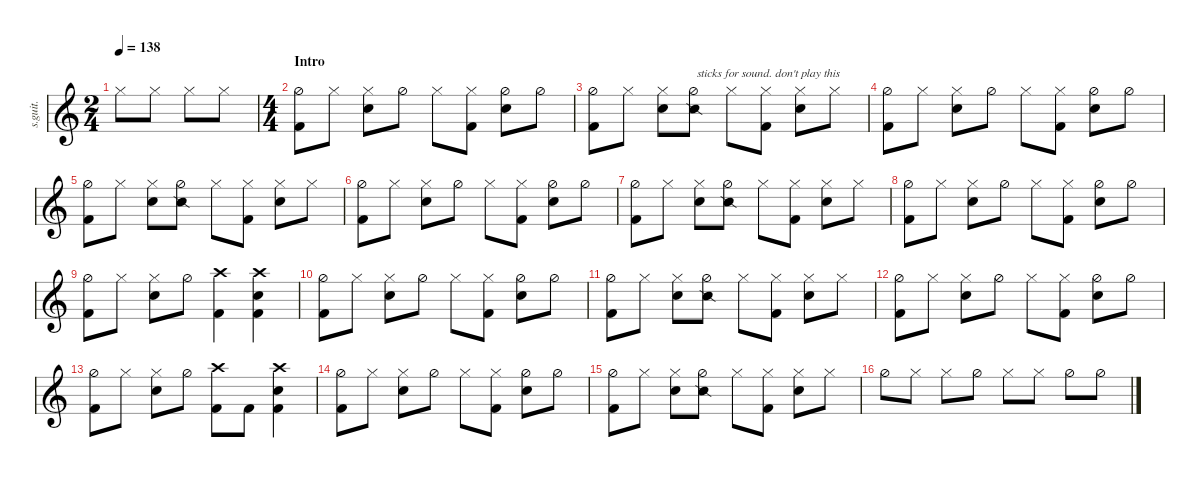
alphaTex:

\defaultSystemsLayout 4
\hideDynamics
\bracketExtendMode nobrackets
\track ("Russel Hobbs | Drums" "s.guit.") {instrument percussion}
\staff {score}
\articulation defaults
\ts (2 4)
\beaming (8 2 2 2 2)
\tempo 138
\clef g2
\ks c "Hi-Hat (closed)".8{dy f} "Hi-Hat (closed)".8 "Hi-Hat (closed)".8 "Hi-Hat (closed)".8
|
\ts (4 4)
\beaming (8 2 2 2 2)
\section ("" "Intro")
("Hi-Hat (half)" "Kick (hit) 2").8 "Hi-Hat (closed)".8 ("Hi-Hat (closed)" "Snare (hit) 2").8{dy ff} "Hi-Hat (half)".8 "Hi-Hat (closed)".8 ("Hi-Hat (closed)" "Kick (hit) 2").8 ("Hi-Hat (half)" "Snare (hit) 2").8 "Hi-Hat (half)".8{dy f} |
("Hi-Hat (half)" "Kick (hit) 2").8 "Hi-Hat (closed)".8 ("Hi-Hat (closed)" "Snare (hit) 2").8 ("Hi-Hat (half)" "Snare (side stick) 2").8{txt "sticks for sound. don't play this"} "Hi-Hat (closed)".8 ("Hi-Hat (closed)" "Kick (hit) 2").8 ("Hi-Hat (closed)" "Snare (hit) 2").8 "Hi-Hat (closed)".8 |
("Hi-Hat (half)" "Kick (hit) 2").8 "Hi-Hat (closed)".8 ("Hi-Hat (closed)" "Snare (hit) 2").8{dy ff} "Hi-Hat (half)".8 "Hi-Hat (closed)".8 ("Hi-Hat (closed)" "Kick (hit) 2").8 ("Hi-Hat (half)" "Snare (hit) 2").8 "Hi-Hat (half)".8{dy f} |
("Hi-Hat (half)" "Kick (hit) 2").8 "Hi-Hat (closed)".8 ("Hi-Hat (closed)" "Snare (hit) 2").8 ("Hi-Hat (half)" "Snare (side stick) 2").8 "Hi-Hat (closed)".8 ("Hi-Hat (closed)" "Kick (hit) 2").8 ("Hi-Hat (closed)" "Snare (hit) 2").8 "Hi-Hat (closed)".8 |
("Hi-Hat (half)" "Kick (hit) 2").8 "Hi-Hat (closed)".8 ("Hi-Hat (closed)" "Snare (hit) 2").8{dy ff} "Hi-Hat (half)".8 "Hi-Hat (closed)".8 ("Hi-Hat (closed)" "Kick (hit) 2").8 ("Hi-Hat (half)" "Snare (hit) 2").8 "Hi-Hat (half)".8{dy f} |
("Hi-Hat (half)" "Kick (hit) 2").8 "Hi-Hat (closed)".8 ("Hi-Hat (closed)" "Snare (hit) 2").8 ("Hi-Hat (half)" "Snare (side stick) 2").8 "Hi-Hat (closed)".8 ("Hi-Hat (closed)" "Kick (hit) 2").8 ("Hi-Hat (closed)" "Snare (hit) 2").8{dy ff} "Hi-Hat (closed)".8{dy f} |
("Hi-Hat (half)" "Kick (hit) 2").8 "Hi-Hat (closed)".8 ("Hi-Hat (closed)" "Snare (hit) 2").8{dy ff} "Hi-Hat (half)".8 "Hi-Hat (closed)".8 ("Hi-Hat (closed)" "Kick (hit) 2").8 ("Hi-Hat (half)" "Snare (hit) 2").8 "Hi-Hat (half)".8{dy f} |
("Hi-Hat (half)" "Kick (hit) 2").8 "Hi-Hat (closed)".8 ("Hi-Hat (closed)" "Snare (hit) 2").8 "Hi-Hat (half)".8 ("Crash high (hit)" "Kick (hit) 2").4 ("Crash high (hit)" "Snare (hit) 2" "Kick (hit) 2").4 |
("Hi-Hat (half)" "Kick (hit) 2").8 "Hi-Hat (closed)".8 ("Hi-Hat (closed)" "Snare (hit) 2").8{dy ff} "Hi-Hat (half)".8 "Hi-Hat (closed)".8 ("Hi-Hat (closed)" "Kick (hit) 2").8 ("Hi-Hat (half)" "Snare (hit) 2").8 "Hi-Hat (half)".8{dy f} |
("Hi-Hat (half)" "Kick (hit) 2").8 "Hi-Hat (closed)".8 ("Hi-Hat (closed)" "Snare (hit) 2").8 ("Hi-Hat (half)" "Snare (side stick) 2").8 "Hi-Hat (closed)".8 ("Hi-Hat (closed)" "Kick (hit) 2").8 ("Hi-Hat (closed)" "Snare (hit) 2").8 "Hi-Hat (closed)".8 |
("Hi-Hat (half)" "Kick (hit) 2").8 "Hi-Hat (closed)".8 ("Hi-Hat (closed)" "Snare (hit) 2").8{dy ff} "Hi-Hat (half)".8 "Hi-Hat (closed)".8 ("Hi-Hat (closed)" "Kick (hit) 2").8 ("Hi-Hat (half)" "Snare (hit) 2").8 "Hi-Hat (half)".8{dy f} |
("Hi-Hat (half)" "Kick (hit) 2").8 "Hi-Hat (closed)".8 ("Hi-Hat (closed)" "Snare (hit) 2").8 "Hi-Hat (half)".8 ("Crash high (hit)" "Kick (hit) 2").8 "Kick (hit) 2".8{dy fff} ("Crash high (hit)" "Snare (hit) 2" "Kick (hit) 2").4 |
("Hi-Hat (half)" "Kick (hit) 2").8 "Hi-Hat (closed)".8{dy f} ("Hi-Hat (closed)" "Snare (hit) 2").8{dy ff} "Hi-Hat (half)".8 "Hi-Hat (closed)".8 ("Hi-Hat (closed)" "Kick (hit) 2").8 ("Hi-Hat (half)" "Snare (hit) 2").8 "Hi-Hat (half)".8{dy f} |
("Hi-Hat (half)" "Kick (hit) 2").8 "Hi-Hat (closed)".8 ("Hi-Hat (closed)" "Snare (hit) 2").8 ("Hi-Hat (half)" "Snare (side stick) 2").8 "Hi-Hat (closed)".8 ("Hi-Hat (closed)" "Kick (hit) 2").8 ("Hi-Hat (closed)" "Snare (hit) 2").8 "Hi-Hat (closed)".8 |
"Hi-Hat (half)".8 "Hi-Hat (closed)".8 "Hi-Hat (closed)".8 "Hi-Hat (half)".8 "Hi-Hat (closed)".8 "Hi-Hat (closed)".8 "Hi-Hat (half)".8 "Hi-Hat (half)".8
